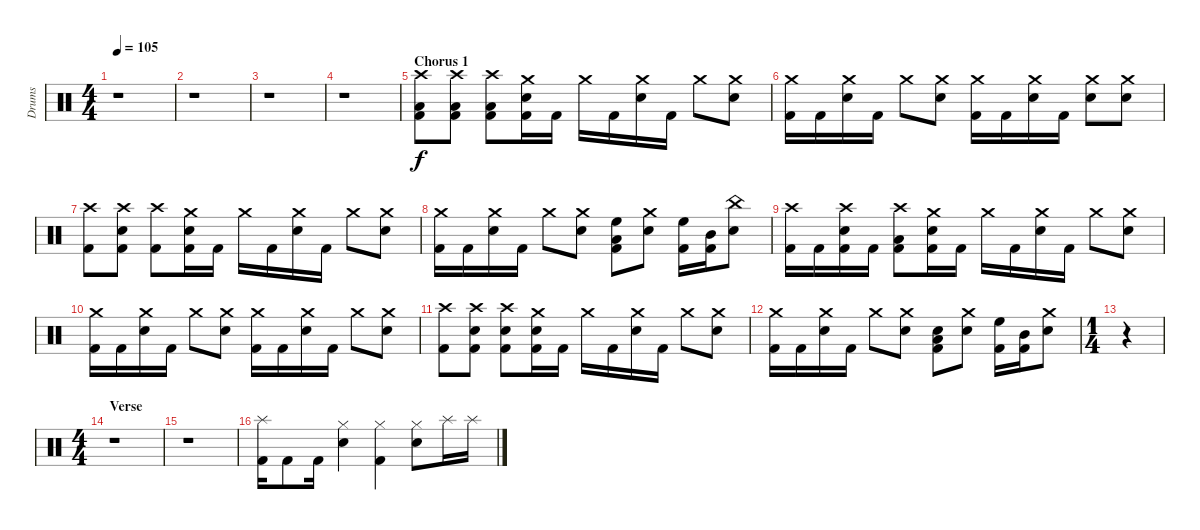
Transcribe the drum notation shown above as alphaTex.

\track ("Drums" "Drums") {instrument percussion}
\staff {score}
\articulation defaults
\ts (4 4)
\tempo 105
\clef neutral
\ks c
r.1{dy f} |
r.1 |
r.1 |
r.1 |
\section ("" "Chorus 1")
("Crash high (hit)" "Low Tom (hit)" "Kick (hit) 2").8 ("Crash high (hit)" "Low Tom (hit)" "Kick (hit) 2").8 ("Crash high (hit)" "Low Tom (hit)" "Kick (hit) 2").8 ("Crash medium (hit)" "Snare (hit) 2" "Kick (hit) 2").16 "Kick (hit) 2".16 "Crash medium (hit)".16 "Kick (hit) 2".16 ("Crash medium (hit)" "Snare (hit) 2").16 "Kick (hit) 2".16 "Crash medium (hit)".8 ("Crash medium (hit)" "Snare (hit) 2").8 |
("Crash medium (hit)" "Kick (hit) 2").16 "Kick (hit) 2".16 ("Crash medium (hit)" "Snare (hit) 2").16 "Kick (hit) 2".16 "Crash medium (hit)".8 ("Crash medium (hit)" "Snare (hit) 2").8 ("Crash medium (hit)" "Kick (hit) 2").16 "Kick (hit) 2".16 ("Crash medium (hit)" "Snare (hit) 2").16 "Kick (hit) 2".16 ("Crash medium (hit)" "Snare (hit) 2").8 ("Crash medium (hit)" "Snare (hit) 2").8 |
("Crash high (hit)" "Kick (hit) 2").8 ("Crash high (hit)" "Snare (hit) 2" "Kick (hit) 2").8 ("Crash high (hit)" "Kick (hit) 2").8 ("Crash medium (hit)" "Snare (hit) 2" "Kick (hit) 2").16 "Kick (hit) 2".16 "Crash medium (hit)".16 "Kick (hit) 2".16 ("Crash medium (hit)" "Snare (hit) 2").16 "Kick (hit) 2".16 "Crash medium (hit)".8 ("Crash medium (hit)" "Snare (hit) 2").8 |
("Crash medium (hit)" "Kick (hit) 2").16 "Kick (hit) 2".16 ("Crash medium (hit)" "Snare (hit) 2").16 "Kick (hit) 2".16 "Crash medium (hit)".8 ("Crash medium (hit)" "Snare (hit) 2").8 ("High Floor Tom (hit)" "Low Floor Tom (hit)" "Kick (hit) 2").8 ("Crash medium (hit)" "Snare (hit) 2").8 ("High Floor Tom (hit)" "Kick (hit) 2").16 ("Mid Tom (hit)" "Kick (hit) 2").16 ("China (hit)" "Snare (hit) 2").8 |
("Crash high (hit)" "Kick (hit) 2").16 "Kick (hit) 2".16 ("Crash high (hit)" "Snare (hit) 2" "Kick (hit) 2").16 "Kick (hit) 2".16 ("Crash high (hit)" "Low Tom (hit)" "Kick (hit) 2").8 ("Crash medium (hit)" "Snare (hit) 2" "Kick (hit) 2").16 "Kick (hit) 2".16 "Crash medium (hit)".16 "Kick (hit) 2".16 ("Crash medium (hit)" "Snare (hit) 2").16 "Kick (hit) 2".16 "Crash medium (hit)".8 ("Crash medium (hit)" "Snare (hit) 2").8 |
("Crash medium (hit)" "Kick (hit) 2").16 "Kick (hit) 2".16 ("Crash medium (hit)" "Snare (hit) 2").16 "Kick (hit) 2".16 "Crash medium (hit)".8 ("Crash medium (hit)" "Snare (hit) 2").8 ("Crash medium (hit)" "Kick (hit) 2").16 "Kick (hit) 2".16 ("Crash medium (hit)" "Snare (hit) 2").16 "Kick (hit) 2".16 "Crash medium (hit)".8 ("Crash medium (hit)" "Snare (hit) 2").8 |
("Crash high (hit)" "Kick (hit) 2").8 ("Crash high (hit)" "Snare (hit) 2" "Kick (hit) 2").8 ("Crash high (hit)" "Snare (hit) 2" "Kick (hit) 2").8 ("Crash medium (hit)" "Snare (hit) 2" "Kick (hit) 2").16 "Kick (hit) 2".16 "Crash medium (hit)".16 "Kick (hit) 2".16 ("Crash medium (hit)" "Snare (hit) 2").16 "Kick (hit) 2".16 "Crash medium (hit)".8 ("Crash medium (hit)" "Snare (hit) 2").8 |
("Crash medium (hit)" "Kick (hit) 2").16 "Kick (hit) 2".16 ("Crash medium (hit)" "Snare (hit) 2").16 "Kick (hit) 2".16 "Crash medium (hit)".8 ("Crash medium (hit)" "Snare (hit) 2").8 ("Snare (hit) 2" "Low Floor Tom (hit)" "Kick (hit) 2").8 ("Crash medium (hit)" "Snare (hit) 2").8 ("High Floor Tom (hit)" "Kick (hit) 2").16 ("Mid Tom (hit)" "Kick (hit) 2").16 ("Crash medium (hit)" "Snare (hit) 2").8 |
\ts (1 4)
r.4 |
\ts (4 4)
\section ("" "Verse")
r.1 |
r.1 |
("Splash (hit)" "Kick (hit) 2").16 "Kick (hit) 2".8 "Kick (hit) 2".16 ("Hi-Hat (closed)" "Snare (hit) 2").4 ("Hi-Hat (closed)" "Kick (hit) 2").4 ("Hi-Hat (closed)" "Snare (hit) 2").8 "Splash (hit)".16 "Splash (hit)".16
